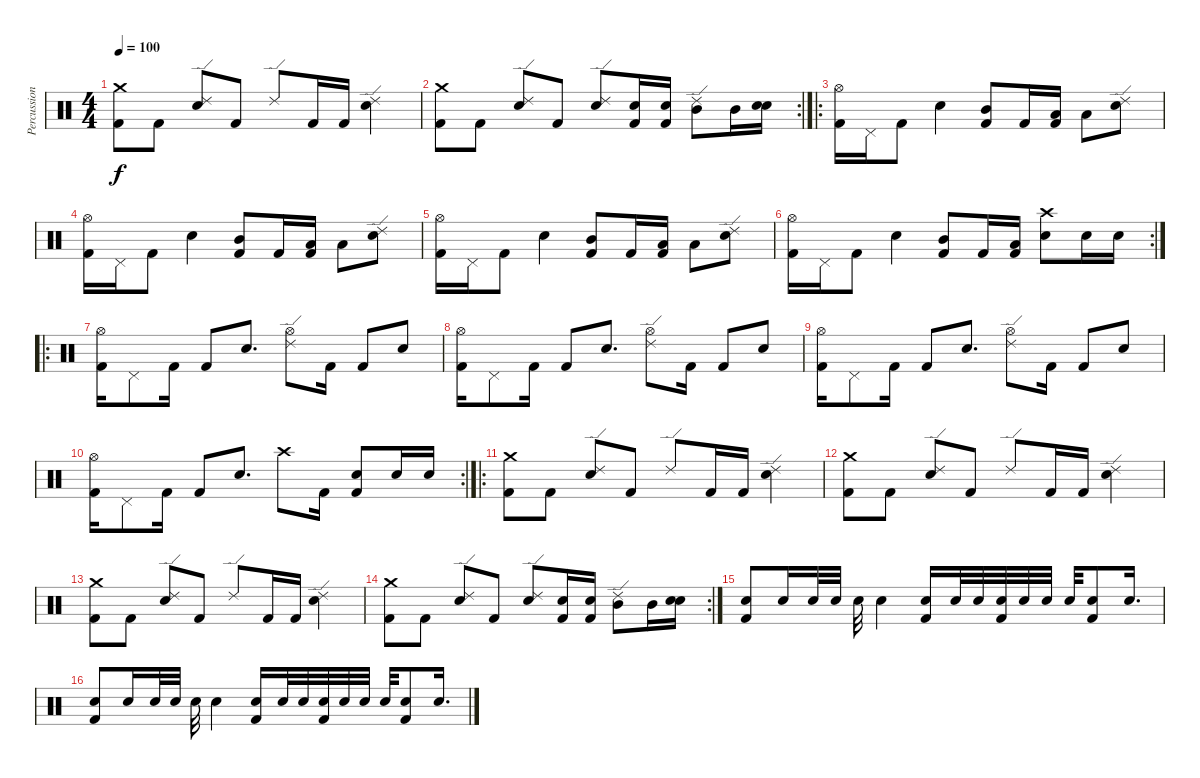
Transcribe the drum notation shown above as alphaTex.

\track ("Percussion" "Percussion") {instrument percussion}
\staff {score}
\articulation defaults
\ts (4 4)
\tempo 100
\clef neutral
\ks c
("Crash medium (hit)" "Kick (hit) 2").8{dy f} "Kick (hit) 2".8 ("Ride (edge) 2" "Snare (hit) 2").8 "Kick (hit) 2".8 "Ride (edge) 2".8 "Kick (hit) 2".16 "Kick (hit) 2".16 ("Ride (edge) 2" "Snare (hit) 2").4 |
\rc 2
("Crash medium (hit)" "Kick (hit) 2").8 "Kick (hit) 2".8 ("Ride (edge) 2" "Snare (hit) 2").8 "Kick (hit) 2".8 ("Ride (edge) 2" "Snare (hit) 2").8 ("Snare (hit) 2" "Kick (hit) 2").16 ("Snare (hit) 2" "Kick (hit) 2").16 ("Ride (edge) 2" "Mid Tom (hit)").8 "Mid Tom (hit)".16 ("Snare (hit) 2" "Snare (hit) 2").16 |
\ro
("Hi-Hat (open)" "Kick (hit) 2").16 "Pedal Hi-Hat (hit)".16 "Kick (hit) 2".8 "Snare (hit) 2".4 ("Mid Tom (hit)" "Kick (hit) 2").8 "Kick (hit) 2".16 ("Low Floor Tom (hit)" "Kick (hit) 2").16 "Low Floor Tom (hit)".8 ("Ride (edge) 2" "Snare (hit) 2").8 |
("Hi-Hat (open)" "Kick (hit) 2").16 "Pedal Hi-Hat (hit)".16 "Kick (hit) 2".8 "Snare (hit) 2".4 ("Mid Tom (hit)" "Kick (hit) 2").8 "Kick (hit) 2".16 ("Low Floor Tom (hit)" "Kick (hit) 2").16 "Low Floor Tom (hit)".8 ("Ride (edge) 2" "Snare (hit) 2").8 |
("Hi-Hat (open)" "Kick (hit) 2").16 "Pedal Hi-Hat (hit)".16 "Kick (hit) 2".8 "Snare (hit) 2".4 ("Mid Tom (hit)" "Kick (hit) 2").8 "Kick (hit) 2".16 ("Low Floor Tom (hit)" "Kick (hit) 2").16 "Low Floor Tom (hit)".8 ("Ride (edge) 2" "Snare (hit) 2").8 |
\rc 2
("Hi-Hat (open)" "Kick (hit) 2").16 "Pedal Hi-Hat (hit)".16 "Kick (hit) 2".8 "Snare (hit) 2".4 ("Mid Tom (hit)" "Kick (hit) 2").8 "Kick (hit) 2".16 ("Low Floor Tom (hit)" "Kick (hit) 2").16 ("Crash high (hit)" "Snare (hit) 2").8 "Snare (hit) 2".16 "Snare (hit) 2".16 |
\ro
("Hi-Hat (open)" "Kick (hit) 2").16 "Pedal Hi-Hat (hit)".8 "Kick (hit) 2".16 "Kick (hit) 2".8 "Snare (hit) 2".8{d} ("Ride (edge) 2" "Hi-Hat (open)").8 "Kick (hit) 2".16 "Kick (hit) 2".8 "Snare (hit) 2".8 |
("Hi-Hat (open)" "Kick (hit) 2").16 "Pedal Hi-Hat (hit)".8 "Kick (hit) 2".16 "Kick (hit) 2".8 "Snare (hit) 2".8{d} ("Hi-Hat (open)" "Ride (edge) 2").8 "Kick (hit) 2".16 "Kick (hit) 2".8 "Snare (hit) 2".8 |
("Hi-Hat (open)" "Kick (hit) 2").16 "Pedal Hi-Hat (hit)".8 "Kick (hit) 2".16 "Kick (hit) 2".8 "Snare (hit) 2".8{d} ("Ride (edge) 2" "Hi-Hat (open)").8 "Kick (hit) 2".16 "Kick (hit) 2".8 "Snare (hit) 2".8 |
\rc 2
("Hi-Hat (open)" "Kick (hit) 2").16 "Pedal Hi-Hat (hit)".8 "Kick (hit) 2".16 "Kick (hit) 2".8 "Snare (hit) 2".8{d} "Crash high (hit)".8 "Kick (hit) 2".16 ("Snare (hit) 2" "Kick (hit) 2").8 "Snare (hit) 2".16 "Snare (hit) 2".16 |
\ro
("Crash medium (hit)" "Kick (hit) 2").8 "Kick (hit) 2".8 ("Ride (edge) 2" "Snare (hit) 2").8 "Kick (hit) 2".8 "Ride (edge) 2".8 "Kick (hit) 2".16 "Kick (hit) 2".16 ("Ride (edge) 2" "Snare (hit) 2").4 |
("Crash medium (hit)" "Kick (hit) 2").8 "Kick (hit) 2".8 ("Ride (edge) 2" "Snare (hit) 2").8 "Kick (hit) 2".8 "Ride (edge) 2".8 "Kick (hit) 2".16 "Kick (hit) 2".16 ("Ride (edge) 2" "Snare (hit) 2").4 |
("Crash medium (hit)" "Kick (hit) 2").8 "Kick (hit) 2".8 ("Ride (edge) 2" "Snare (hit) 2").8 "Kick (hit) 2".8 "Ride (edge) 2".8 "Kick (hit) 2".16 "Kick (hit) 2".16 ("Ride (edge) 2" "Snare (hit) 2").4 |
\rc 2
("Crash medium (hit)" "Kick (hit) 2").8 "Kick (hit) 2".8 ("Ride (edge) 2" "Snare (hit) 2").8 "Kick (hit) 2".8 ("Ride (edge) 2" "Snare (hit) 2").8 ("Snare (hit) 2" "Kick (hit) 2").16 ("Snare (hit) 2" "Kick (hit) 2").16 ("Ride (edge) 2" "Mid Tom (hit)").8 "Mid Tom (hit)".16 ("Snare (hit) 2" "Snare (hit) 2").16 |
("Snare (hit) 2" "Kick (hit) 2").8 "Snare (hit) 2".16 "Snare (hit) 2".32 "Snare (hit) 2".32 "Snare (hit) 2".32 "Snare (hit) 2".4 ("Snare (hit) 2" "Kick (hit) 2").16 "Snare (hit) 2".32 "Snare (hit) 2".32 ("Snare (hit) 2" "Kick (hit) 2").32 "Snare (hit) 2".32 "Snare (hit) 2".32 "Snare (hit) 2".32 ("Snare (hit) 2" "Kick (hit) 2").8 "Snare (hit) 2".16{d} |
("Snare (hit) 2" "Kick (hit) 2").8 "Snare (hit) 2".16 "Snare (hit) 2".32 "Snare (hit) 2".32 "Snare (hit) 2".32 "Snare (hit) 2".4 ("Snare (hit) 2" "Kick (hit) 2").16 "Snare (hit) 2".32 "Snare (hit) 2".32 ("Snare (hit) 2" "Kick (hit) 2").32 "Snare (hit) 2".32 "Snare (hit) 2".32 "Snare (hit) 2".32 ("Snare (hit) 2" "Kick (hit) 2").8 "Snare (hit) 2".16{d}
